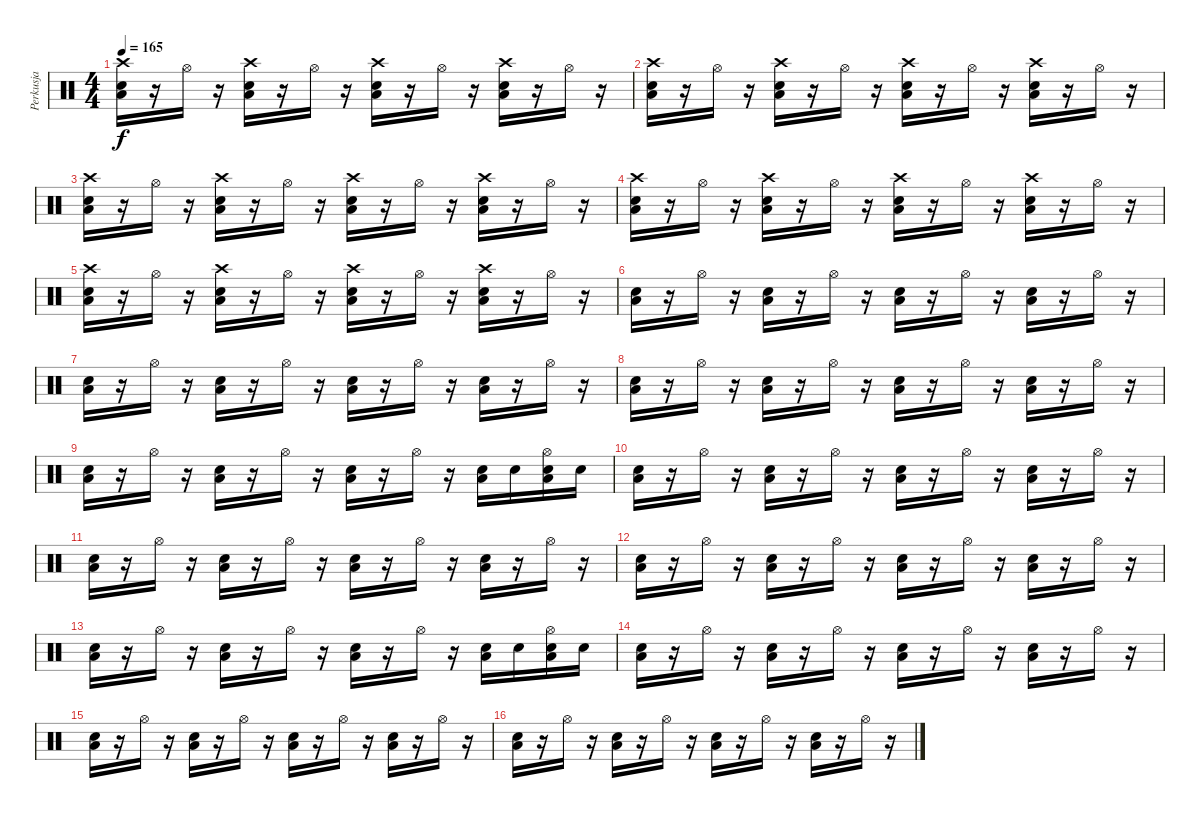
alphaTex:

\track ("Perkusja" "Perkusja") {instrument percussion}
\staff {score}
\articulation defaults
\ts (4 4)
\tempo 165
\clef neutral
\ks c
("Snare (hit) 2" "Low Tom (hit)" "Crash high (hit)").16{dy f} r.16 "Hi-Hat (open)".16 r.16 ("Snare (hit) 2" "Low Tom (hit)" "Crash high (hit)").16 r.16 "Hi-Hat (open)".16 r.16 ("Snare (hit) 2" "Low Tom (hit)" "Crash high (hit)").16 r.16 "Hi-Hat (open)".16 r.16 ("Snare (hit) 2" "Low Tom (hit)" "Crash high (hit)").16 r.16 "Hi-Hat (open)".16 r.16 |
("Snare (hit) 2" "Low Tom (hit)" "Crash high (hit)").16 r.16 "Hi-Hat (open)".16 r.16 ("Snare (hit) 2" "Low Tom (hit)" "Crash high (hit)").16 r.16 "Hi-Hat (open)".16 r.16 ("Snare (hit) 2" "Low Tom (hit)" "Crash high (hit)").16 r.16 "Hi-Hat (open)".16 r.16 ("Snare (hit) 2" "Low Tom (hit)" "Crash high (hit)").16 r.16 "Hi-Hat (open)".16 r.16 |
("Snare (hit) 2" "Low Tom (hit)" "Crash high (hit)").16 r.16 "Hi-Hat (open)".16 r.16 ("Snare (hit) 2" "Low Tom (hit)" "Crash high (hit)").16 r.16 "Hi-Hat (open)".16 r.16 ("Snare (hit) 2" "Low Tom (hit)" "Crash high (hit)").16 r.16 "Hi-Hat (open)".16 r.16 ("Snare (hit) 2" "Low Tom (hit)" "Crash high (hit)").16 r.16 "Hi-Hat (open)".16 r.16 |
("Snare (hit) 2" "Low Tom (hit)" "Crash high (hit)").16 r.16 "Hi-Hat (open)".16 r.16 ("Snare (hit) 2" "Low Tom (hit)" "Crash high (hit)").16 r.16 "Hi-Hat (open)".16 r.16 ("Snare (hit) 2" "Low Tom (hit)" "Crash high (hit)").16 r.16 "Hi-Hat (open)".16 r.16 ("Snare (hit) 2" "Low Tom (hit)" "Crash high (hit)").16 r.16 "Hi-Hat (open)".16 r.16 |
("Snare (hit) 2" "Low Tom (hit)" "Crash high (hit)").16 r.16 "Hi-Hat (open)".16 r.16 ("Snare (hit) 2" "Low Tom (hit)" "Crash high (hit)").16 r.16 "Hi-Hat (open)".16 r.16 ("Snare (hit) 2" "Low Tom (hit)" "Crash high (hit)").16 r.16 "Hi-Hat (open)".16 r.16 ("Snare (hit) 2" "Low Tom (hit)" "Crash high (hit)").16 r.16 "Hi-Hat (open)".16 r.16 |
("Snare (hit) 2" "Low Tom (hit)").16 r.16 "Hi-Hat (open)".16 r.16 ("Snare (hit) 2" "Low Tom (hit)").16 r.16 "Hi-Hat (open)".16 r.16 ("Snare (hit) 2" "Low Tom (hit)").16 r.16 "Hi-Hat (open)".16 r.16 ("Snare (hit) 2" "Low Tom (hit)").16 r.16 "Hi-Hat (open)".16 r.16 |
("Snare (hit) 2" "Low Tom (hit)").16 r.16 "Hi-Hat (open)".16 r.16 ("Snare (hit) 2" "Low Tom (hit)").16 r.16 "Hi-Hat (open)".16 r.16 ("Snare (hit) 2" "Low Tom (hit)").16 r.16 "Hi-Hat (open)".16 r.16 ("Snare (hit) 2" "Low Tom (hit)").16 r.16 "Hi-Hat (open)".16 r.16 |
("Snare (hit) 2" "Low Tom (hit)").16 r.16 "Hi-Hat (open)".16 r.16 ("Snare (hit) 2" "Low Tom (hit)").16 r.16 "Hi-Hat (open)".16 r.16 ("Snare (hit) 2" "Low Tom (hit)").16 r.16 "Hi-Hat (open)".16 r.16 ("Snare (hit) 2" "Low Tom (hit)").16 r.16 "Hi-Hat (open)".16 r.16 |
("Snare (hit) 2" "Low Tom (hit)").16 r.16 "Hi-Hat (open)".16 r.16 ("Snare (hit) 2" "Low Tom (hit)").16 r.16 "Hi-Hat (open)".16 r.16 ("Snare (hit) 2" "Low Tom (hit)").16 r.16 "Hi-Hat (open)".16 r.16 ("Snare (hit) 2" "Low Tom (hit)").16 "Snare (hit) 2".16 ("Snare (hit) 2" "Low Tom (hit)" "Hi-Hat (open)").16 "Snare (hit) 2".16 |
("Snare (hit) 2" "Low Tom (hit)").16 r.16 "Hi-Hat (open)".16 r.16 ("Snare (hit) 2" "Low Tom (hit)").16 r.16 "Hi-Hat (open)".16 r.16 ("Snare (hit) 2" "Low Tom (hit)").16 r.16 "Hi-Hat (open)".16 r.16 ("Snare (hit) 2" "Low Tom (hit)").16 r.16 "Hi-Hat (open)".16 r.16 |
("Snare (hit) 2" "Low Tom (hit)").16 r.16 "Hi-Hat (open)".16 r.16 ("Snare (hit) 2" "Low Tom (hit)").16 r.16 "Hi-Hat (open)".16 r.16 ("Snare (hit) 2" "Low Tom (hit)").16 r.16 "Hi-Hat (open)".16 r.16 ("Snare (hit) 2" "Low Tom (hit)").16 r.16 "Hi-Hat (open)".16 r.16 |
("Snare (hit) 2" "Low Tom (hit)").16 r.16 "Hi-Hat (open)".16 r.16 ("Snare (hit) 2" "Low Tom (hit)").16 r.16 "Hi-Hat (open)".16 r.16 ("Snare (hit) 2" "Low Tom (hit)").16 r.16 "Hi-Hat (open)".16 r.16 ("Snare (hit) 2" "Low Tom (hit)").16 r.16 "Hi-Hat (open)".16 r.16 |
("Snare (hit) 2" "Low Tom (hit)").16 r.16 "Hi-Hat (open)".16 r.16 ("Snare (hit) 2" "Low Tom (hit)").16 r.16 "Hi-Hat (open)".16 r.16 ("Snare (hit) 2" "Low Tom (hit)").16 r.16 "Hi-Hat (open)".16 r.16 ("Snare (hit) 2" "Low Tom (hit)").16 "Snare (hit) 2".16 ("Snare (hit) 2" "Low Tom (hit)" "Hi-Hat (open)").16 "Snare (hit) 2".16 |
("Snare (hit) 2" "Low Tom (hit)").16 r.16 "Hi-Hat (open)".16 r.16 ("Snare (hit) 2" "Low Tom (hit)").16 r.16 "Hi-Hat (open)".16 r.16 ("Snare (hit) 2" "Low Tom (hit)").16 r.16 "Hi-Hat (open)".16 r.16 ("Snare (hit) 2" "Low Tom (hit)").16 r.16 "Hi-Hat (open)".16 r.16 |
("Snare (hit) 2" "Low Tom (hit)").16 r.16 "Hi-Hat (open)".16 r.16 ("Snare (hit) 2" "Low Tom (hit)").16 r.16 "Hi-Hat (open)".16 r.16 ("Snare (hit) 2" "Low Tom (hit)").16 r.16 "Hi-Hat (open)".16 r.16 ("Snare (hit) 2" "Low Tom (hit)").16 r.16 "Hi-Hat (open)".16 r.16 |
("Snare (hit) 2" "Low Tom (hit)").16 r.16 "Hi-Hat (open)".16 r.16 ("Snare (hit) 2" "Low Tom (hit)").16 r.16 "Hi-Hat (open)".16 r.16 ("Snare (hit) 2" "Low Tom (hit)").16 r.16 "Hi-Hat (open)".16 r.16 ("Snare (hit) 2" "Low Tom (hit)").16 r.16 "Hi-Hat (open)".16 r.16
